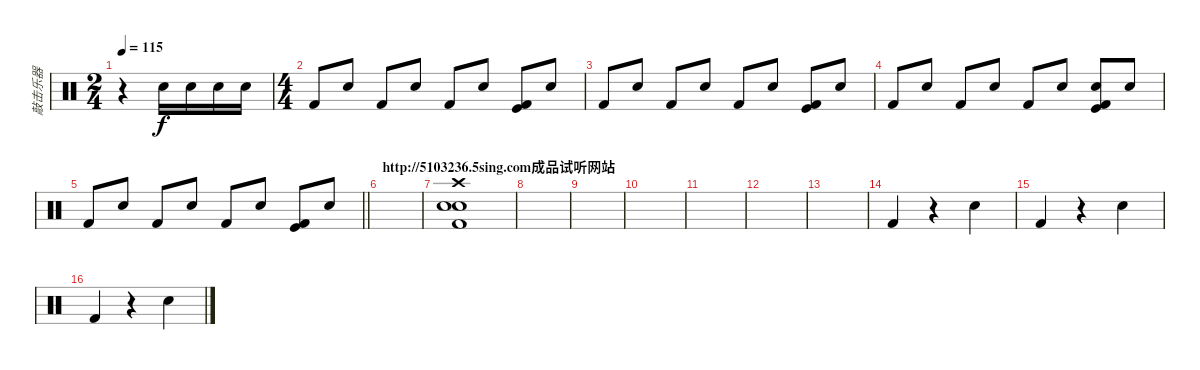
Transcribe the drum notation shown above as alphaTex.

\track ("敲击乐器" "敲击乐器") {instrument percussion}
\staff {score}
\articulation defaults
\ts (2 4)
\tempo 115
\clef neutral
\ks c
r.4{dy f} "Snare (hit) 2".16 "Snare (hit) 2".16 "Snare (hit) 2".16 "Snare (hit) 2".16 |
\ts (4 4)
"Kick (hit) 2".8 "Snare (hit) 2".8 "Kick (hit) 2".8 "Snare (hit) 2".8 "Kick (hit) 2".8 "Snare (hit) 2".8 ("Kick (hit)" "Kick (hit) 2").8 "Snare (hit) 2".8 |
"Kick (hit) 2".8 "Snare (hit) 2".8 "Kick (hit) 2".8 "Snare (hit) 2".8 "Kick (hit) 2".8 "Snare (hit) 2".8 ("Kick (hit)" "Kick (hit) 2").8 "Snare (hit) 2".8 |
"Kick (hit) 2".8 "Snare (hit) 2".8 "Kick (hit) 2".8 "Snare (hit) 2".8 "Kick (hit) 2".8 "Snare (hit) 2".8 ("Kick (hit)" "Kick (hit) 2" "Electric Snare (hit)").8 "Snare (hit) 2".8 |
\barLineRight lightlight "Kick (hit) 2".8 "Snare (hit) 2".8 "Kick (hit) 2".8 "Snare (hit) 2".8 "Kick (hit) 2".8 "Snare (hit) 2".8
("Kick (hit)" "Kick (hit) 2").8 "Snare (hit) 2".8 |
\section ("" "http://5103236.5sing.com成品试听网站")
|
("Kick (hit) 2" "Snare (hit) 2" "Electric Snare (hit)" "Crash high (hit)").1 |
|
|
|
|
|
|
"Kick (hit) 2".4 r.4 "Snare (hit) 2".4 |
"Kick (hit) 2".4 r.4 "Snare (hit) 2".4 |
"Kick (hit) 2".4 r.4 "Snare (hit) 2".4
